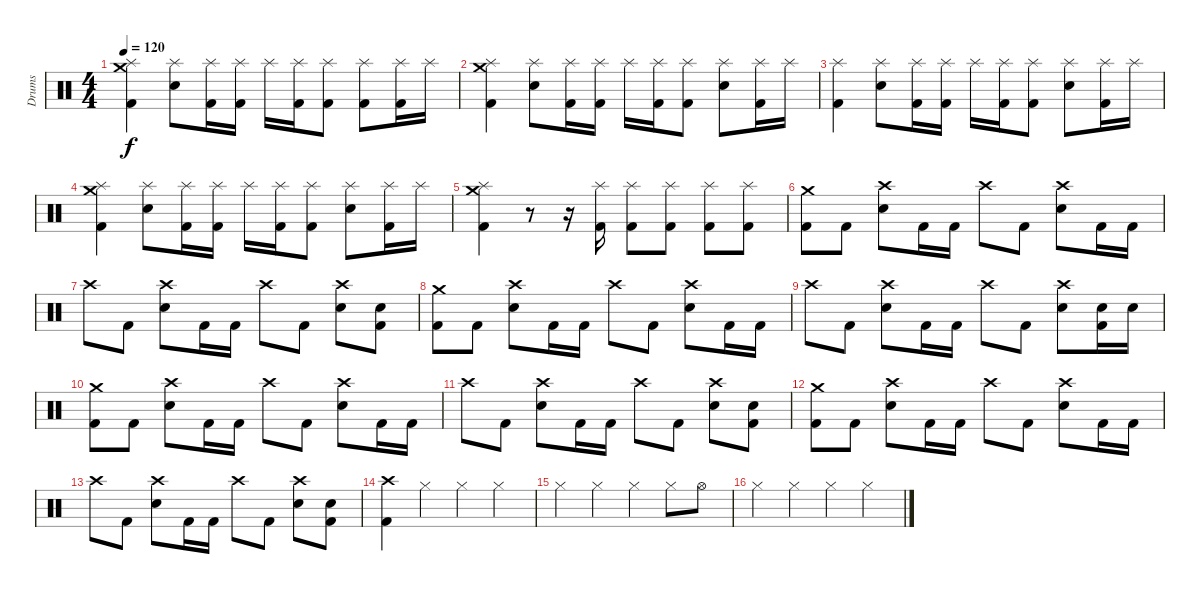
\track ("Drums" "Drums") {instrument percussion}
\staff {score}
\articulation defaults
\ts (4 4)
\tempo 120
\clef neutral
\ks c
("Kick (hit) 2" "Splash (hit)" "Crash medium (hit)").4{dy f} ("Snare (hit) 2" "Splash (hit)").8 ("Kick (hit) 2" "Splash (hit)").16 ("Kick (hit) 2" "Splash (hit)").16 "Splash (hit)".16 ("Kick (hit) 2" "Splash (hit)").16 ("Kick (hit) 2" "Splash (hit)").8 ("Kick (hit) 2" "Splash (hit)").8 ("Kick (hit) 2" "Splash (hit)").16 "Splash (hit)".16 |
("Kick (hit) 2" "Splash (hit)" "Crash medium (hit)").4 ("Snare (hit) 2" "Splash (hit)").8 ("Kick (hit) 2" "Splash (hit)").16 ("Kick (hit) 2" "Splash (hit)").16 "Splash (hit)".16 ("Kick (hit) 2" "Splash (hit)").16 ("Kick (hit) 2" "Splash (hit)").8 ("Snare (hit) 2" "Splash (hit)").8 ("Kick (hit) 2" "Splash (hit)").16 "Splash (hit)".16 |
("Kick (hit) 2" "Splash (hit)").4 ("Snare (hit) 2" "Splash (hit)").8 ("Kick (hit) 2" "Splash (hit)").16 ("Kick (hit) 2" "Splash (hit)").16 "Splash (hit)".16 ("Kick (hit) 2" "Splash (hit)").16 ("Kick (hit) 2" "Splash (hit)").8 ("Snare (hit) 2" "Splash (hit)").8 ("Kick (hit) 2" "Splash (hit)").16 "Splash (hit)".16 |
("Kick (hit) 2" "Splash (hit)" "Crash medium (hit)").4 ("Snare (hit) 2" "Splash (hit)").8 ("Kick (hit) 2" "Splash (hit)").16 ("Kick (hit) 2" "Splash (hit)").16 "Splash (hit)".16 ("Kick (hit) 2" "Splash (hit)").16 ("Kick (hit) 2" "Splash (hit)").8 ("Snare (hit) 2" "Splash (hit)").8 ("Kick (hit) 2" "Splash (hit)").16 "Splash (hit)".16 |
("Kick (hit) 2" "Splash (hit)" "Crash medium (hit)").4 r.8 r.16 ("Kick (hit) 2" "Splash (hit)").16 ("Kick (hit) 2" "Splash (hit)").8 ("Kick (hit) 2" "Splash (hit)").8 ("Kick (hit) 2" "Splash (hit)").8 ("Kick (hit) 2" "Splash (hit)").8 |
("Kick (hit) 2" "Crash medium (hit)").8 "Kick (hit) 2".8 ("Snare (hit) 2" "Crash high (hit)").8 "Kick (hit) 2".16 "Kick (hit) 2".16 "Crash high (hit)".8 "Kick (hit) 2".8 ("Snare (hit) 2" "Crash high (hit)").8 "Kick (hit) 2".16 "Kick (hit) 2".16 |
"Crash high (hit)".8 "Kick (hit) 2".8 ("Snare (hit) 2" "Crash high (hit)").8 "Kick (hit) 2".16 "Kick (hit) 2".16 "Crash high (hit)".8 "Kick (hit) 2".8 ("Snare (hit) 2" "Crash high (hit)").8 ("Kick (hit) 2" "Snare (hit) 2").8 |
("Kick (hit) 2" "Crash medium (hit)").8 "Kick (hit) 2".8 ("Snare (hit) 2" "Crash high (hit)").8 "Kick (hit) 2".16 "Kick (hit) 2".16 "Crash high (hit)".8 "Kick (hit) 2".8 ("Snare (hit) 2" "Crash high (hit)").8 "Kick (hit) 2".16 "Kick (hit) 2".16 |
"Crash high (hit)".8 "Kick (hit) 2".8 ("Snare (hit) 2" "Crash high (hit)").8 "Kick (hit) 2".16 "Kick (hit) 2".16 "Crash high (hit)".8 "Kick (hit) 2".8 ("Snare (hit) 2" "Crash high (hit)").8 ("Kick (hit) 2" "Snare (hit) 2").16 "Snare (hit) 2".16 |
("Kick (hit) 2" "Crash medium (hit)").8 "Kick (hit) 2".8 ("Snare (hit) 2" "Crash high (hit)").8 "Kick (hit) 2".16 "Kick (hit) 2".16 "Crash high (hit)".8 "Kick (hit) 2".8 ("Snare (hit) 2" "Crash high (hit)").8 "Kick (hit) 2".16 "Kick (hit) 2".16 |
"Crash high (hit)".8 "Kick (hit) 2".8 ("Snare (hit) 2" "Crash high (hit)").8 "Kick (hit) 2".16 "Kick (hit) 2".16 "Crash high (hit)".8 "Kick (hit) 2".8 ("Snare (hit) 2" "Crash high (hit)").8 ("Kick (hit) 2" "Snare (hit) 2").8 |
("Kick (hit) 2" "Crash medium (hit)").8 "Kick (hit) 2".8 ("Snare (hit) 2" "Crash high (hit)").8 "Kick (hit) 2".16 "Kick (hit) 2".16 "Crash high (hit)".8 "Kick (hit) 2".8 ("Snare (hit) 2" "Crash high (hit)").8 "Kick (hit) 2".16 "Kick (hit) 2".16 |
"Crash high (hit)".8 "Kick (hit) 2".8 ("Snare (hit) 2" "Crash high (hit)").8 "Kick (hit) 2".16 "Kick (hit) 2".16 "Crash high (hit)".8 "Kick (hit) 2".8 ("Snare (hit) 2" "Crash high (hit)").8 ("Kick (hit) 2" "Snare (hit) 2").8 |
("Kick (hit) 2" "Crash high (hit)").4 "Hi-Hat (closed)".4 "Hi-Hat (closed)".4 "Hi-Hat (closed)".4 |
"Hi-Hat (closed)".4 "Hi-Hat (closed)".4 "Hi-Hat (closed)".4 "Hi-Hat (closed)".8 "Hi-Hat (open)".8 |
"Hi-Hat (closed)".4 "Hi-Hat (closed)".4 "Hi-Hat (closed)".4 "Hi-Hat (closed)".4
